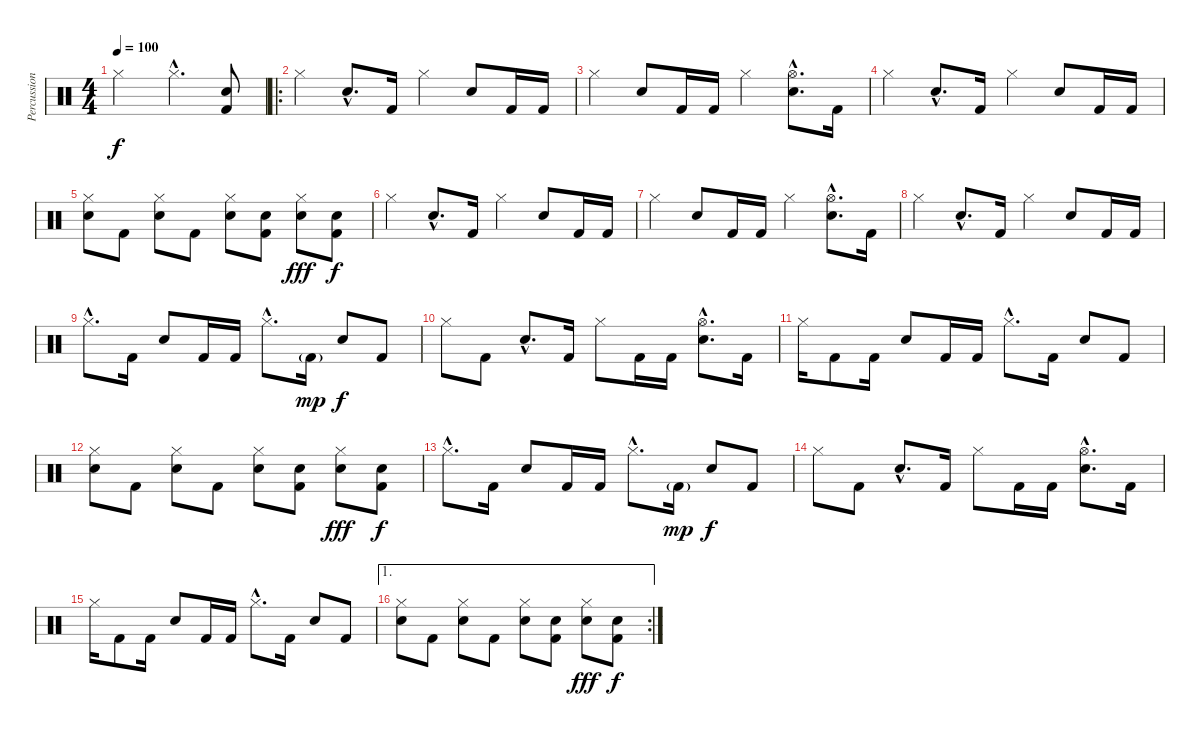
\track ("Percussion" "Percussion") {instrument percussion}
\staff {score}
\articulation defaults
\ts (4 4)
\tempo 100
\clef neutral
\ks c "Hi-Hat (closed)".2{dy f} "Hi-Hat (closed)"{hac}.4{d}
("Electric Snare (hit)" "Kick (hit) 2").8 |
\ro "Hi-Hat (closed)".4 "Electric Snare (hit)"{hac}.8{d} "Kick (hit) 2".16 "Hi-Hat (closed)".4 "Electric Snare (hit)".8 "Kick (hit) 2".16 "Kick (hit) 2".16
|
"Hi-Hat (closed)".4 "Electric Snare (hit)".8 "Kick (hit) 2".16 "Kick (hit) 2".16 "Hi-Hat (closed)".4 ("Electric Snare (hit)"{hac} "Hi-Hat (open)"{hac}).8{d} "Kick (hit) 2".16 |
"Hi-Hat (closed)".4 "Electric Snare (hit)"{hac}.8{d} "Kick (hit) 2".16 "Hi-Hat (closed)".4 "Electric Snare (hit)".8 "Kick (hit) 2".16 "Kick (hit) 2".16 |
("Hi-Hat (closed)" "Electric Snare (hit)").8 "Kick (hit) 2".8 ("Hi-Hat (closed)" "Electric Snare (hit)").8 "Kick (hit) 2".8 ("Hi-Hat (closed)" "Electric Snare (hit)").8 ("Kick (hit) 2" "Electric Snare (hit)").8 ("Hi-Hat (closed)" "Electric Snare (hit)").8{dy fff} ("Kick (hit) 2" "Electric Snare (hit)").8{dy f} |
"Hi-Hat (closed)".4 "Electric Snare (hit)"{hac}.8{d} "Kick (hit) 2".16 "Hi-Hat (closed)".4 "Electric Snare (hit)".8 "Kick (hit) 2".16 "Kick (hit) 2".16 |
"Hi-Hat (closed)".4 "Electric Snare (hit)".8 "Kick (hit) 2".16 "Kick (hit) 2".16 "Hi-Hat (closed)".4 ("Electric Snare (hit)"{hac} "Hi-Hat (open)"{hac}).8{d} "Kick (hit) 2".16 |
"Hi-Hat (closed)".4 "Electric Snare (hit)"{hac}.8{d} "Kick (hit) 2".16 "Hi-Hat (closed)".4 "Electric Snare (hit)".8 "Kick (hit) 2".16 "Kick (hit) 2".16 |
"Hi-Hat (closed)"{hac}.8{d} "Kick (hit) 2".16 "Electric Snare (hit)".8 "Kick (hit) 2".16 "Kick (hit) 2".16 "Hi-Hat (closed)"{hac}.8{d} "Kick (hit) 2"{g}.16{dy mp} "Electric Snare (hit)".8{dy f} "Kick (hit) 2".8 |
"Hi-Hat (closed)".8 "Kick (hit) 2".8 "Electric Snare (hit)"{hac}.8{d} "Kick (hit) 2".16 "Hi-Hat (closed)".8 "Kick (hit) 2".16 "Kick (hit) 2".16 ("Hi-Hat (open)"{hac} "Electric Snare (hit)"{hac}).8{d} "Kick (hit) 2".16 |
"Hi-Hat (closed)".16 "Kick (hit) 2".8 "Kick (hit) 2".16 "Electric Snare (hit)".8 "Kick (hit) 2".16 "Kick (hit) 2".16 "Hi-Hat (closed)"{hac}.8{d} "Kick (hit) 2".16 "Electric Snare (hit)".8 "Kick (hit) 2".8 |
("Hi-Hat (closed)" "Electric Snare (hit)").8 "Kick (hit) 2".8 ("Hi-Hat (closed)" "Electric Snare (hit)").8 "Kick (hit) 2".8 ("Hi-Hat (closed)" "Electric Snare (hit)").8 ("Kick (hit) 2" "Electric Snare (hit)").8 ("Hi-Hat (closed)" "Electric Snare (hit)").8{dy fff} ("Kick (hit) 2" "Electric Snare (hit)").8{dy f} |
"Hi-Hat (closed)"{hac}.8{d} "Kick (hit) 2".16 "Electric Snare (hit)".8 "Kick (hit) 2".16 "Kick (hit) 2".16 "Hi-Hat (closed)"{hac}.8{d} "Kick (hit) 2"{g}.16{dy mp} "Electric Snare (hit)".8{dy f} "Kick (hit) 2".8 |
"Hi-Hat (closed)".8 "Kick (hit) 2".8 "Electric Snare (hit)"{hac}.8{d} "Kick (hit) 2".16 "Hi-Hat (closed)".8 "Kick (hit) 2".16 "Kick (hit) 2".16 ("Hi-Hat (open)"{hac} "Electric Snare (hit)"{hac}).8{d} "Kick (hit) 2".16 |
"Hi-Hat (closed)".16 "Kick (hit) 2".8 "Kick (hit) 2".16 "Electric Snare (hit)".8 "Kick (hit) 2".16 "Kick (hit) 2".16 "Hi-Hat (closed)"{hac}.8{d} "Kick (hit) 2".16 "Electric Snare (hit)".8 "Kick (hit) 2".8 |
\ae 1
\rc 2
("Hi-Hat (closed)" "Electric Snare (hit)").8 "Kick (hit) 2".8 ("Hi-Hat (closed)" "Electric Snare (hit)").8 "Kick (hit) 2".8 ("Hi-Hat (closed)" "Electric Snare (hit)").8 ("Kick (hit) 2" "Electric Snare (hit)").8 ("Hi-Hat (closed)" "Electric Snare (hit)").8{dy fff} ("Kick (hit) 2" "Electric Snare (hit)").8{dy f}
